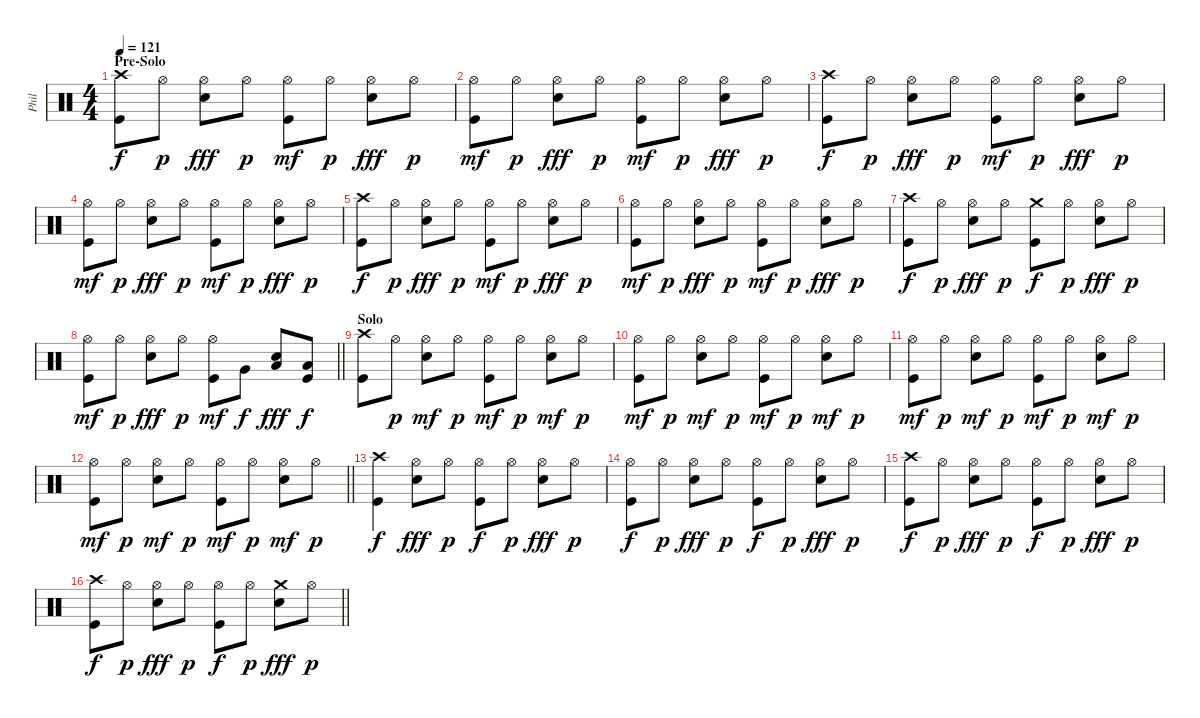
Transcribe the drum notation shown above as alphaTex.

\track ("Phil" "Phil") {instrument percussion}
\staff {score}
\articulation defaults
\ts (4 4)
\section ("" "Pre-Solo")
\tempo 121
\clef neutral
\ks c
("Crash high (hit)" "Kick (hit)").8{dy f} "Hi-Hat (open)".8{dy p} ("Hi-Hat (open)" "Snare (hit) 2").8{dy fff} "Hi-Hat (open)".8{dy p} ("Hi-Hat (open)" "Kick (hit)").8{dy mf} "Hi-Hat (open)".8{dy p} ("Hi-Hat (open)" "Snare (hit) 2").8{dy fff} "Hi-Hat (open)".8{dy p} |
("Hi-Hat (open)" "Kick (hit)").8{dy mf} "Hi-Hat (open)".8{dy p} ("Hi-Hat (open)" "Snare (hit) 2").8{dy fff} "Hi-Hat (open)".8{dy p} ("Hi-Hat (open)" "Kick (hit)").8{dy mf} "Hi-Hat (open)".8{dy p} ("Hi-Hat (open)" "Snare (hit) 2").8{dy fff} "Hi-Hat (open)".8{dy p} |
("Crash high (hit)" "Kick (hit)").8{dy f} "Hi-Hat (open)".8{dy p} ("Hi-Hat (open)" "Snare (hit) 2").8{dy fff} "Hi-Hat (open)".8{dy p} ("Hi-Hat (open)" "Kick (hit)").8{dy mf} "Hi-Hat (open)".8{dy p} ("Hi-Hat (open)" "Snare (hit) 2").8{dy fff} "Hi-Hat (open)".8{dy p} |
("Hi-Hat (open)" "Kick (hit)").8{dy mf} "Hi-Hat (open)".8{dy p} ("Hi-Hat (open)" "Snare (hit) 2").8{dy fff} "Hi-Hat (open)".8{dy p} ("Hi-Hat (open)" "Kick (hit)").8{dy mf} "Hi-Hat (open)".8{dy p} ("Hi-Hat (open)" "Snare (hit) 2").8{dy fff} "Hi-Hat (open)".8{dy p} |
("Crash high (hit)" "Kick (hit)").8{dy f} "Hi-Hat (open)".8{dy p} ("Hi-Hat (open)" "Snare (hit) 2").8{dy fff} "Hi-Hat (open)".8{dy p} ("Hi-Hat (open)" "Kick (hit)").8{dy mf} "Hi-Hat (open)".8{dy p} ("Hi-Hat (open)" "Snare (hit) 2").8{dy fff} "Hi-Hat (open)".8{dy p} |
("Hi-Hat (open)" "Kick (hit)").8{dy mf} "Hi-Hat (open)".8{dy p} ("Hi-Hat (open)" "Snare (hit) 2").8{dy fff} "Hi-Hat (open)".8{dy p} ("Hi-Hat (open)" "Kick (hit)").8{dy mf} "Hi-Hat (open)".8{dy p} ("Hi-Hat (open)" "Snare (hit) 2").8{dy fff} "Hi-Hat (open)".8{dy p} |
("Crash high (hit)" "Kick (hit)").8{dy f} "Hi-Hat (open)".8{dy p} ("Hi-Hat (open)" "Snare (hit) 2").8{dy fff} "Hi-Hat (open)".8{dy p} ("Crash medium (hit)" "Kick (hit)").8{dy f} "Hi-Hat (open)".8{dy p} ("Hi-Hat (open)" "Snare (hit) 2").8{dy fff} "Hi-Hat (open)".8{dy p} |
\barLineRight lightlight
("Hi-Hat (open)" "Kick (hit)").8{dy mf} "Hi-Hat (open)".8{dy p} ("Hi-Hat (open)" "Snare (hit) 2").8{dy fff} "Hi-Hat (open)".8{dy p} ("Hi-Hat (open)" "Kick (hit)").8{dy mf} "Very Low Tom (hit)".8{dy f} ("Low Tom (hit)" "Snare (hit) 2").8{dy fff} ("Low Floor Tom (hit)" "Kick (hit)").8{dy f} |
\section ("" "Solo")
("Crash high (hit)" "Kick (hit)").8 "Hi-Hat (open)".8{dy p} ("Hi-Hat (open)" "Snare (hit) 2").8{dy mf} "Hi-Hat (open)".8{dy p} ("Hi-Hat (open)" "Kick (hit)").8{dy mf} "Hi-Hat (open)".8{dy p} ("Hi-Hat (open)" "Snare (hit) 2").8{dy mf} "Hi-Hat (open)".8{dy p} |
("Hi-Hat (open)" "Kick (hit)").8{dy mf} "Hi-Hat (open)".8{dy p} ("Hi-Hat (open)" "Snare (hit) 2").8{dy mf} "Hi-Hat (open)".8{dy p} ("Hi-Hat (open)" "Kick (hit)").8{dy mf} "Hi-Hat (open)".8{dy p} ("Hi-Hat (open)" "Snare (hit) 2").8{dy mf} "Hi-Hat (open)".8{dy p} |
("Hi-Hat (open)" "Kick (hit)").8{dy mf} "Hi-Hat (open)".8{dy p} ("Hi-Hat (open)" "Snare (hit) 2").8{dy mf} "Hi-Hat (open)".8{dy p} ("Hi-Hat (open)" "Kick (hit)").8{dy mf} "Hi-Hat (open)".8{dy p} ("Hi-Hat (open)" "Snare (hit) 2").8{dy mf} "Hi-Hat (open)".8{dy p} |
\barLineRight lightlight
("Hi-Hat (open)" "Kick (hit)").8{dy mf} "Hi-Hat (open)".8{dy p} ("Hi-Hat (open)" "Snare (hit) 2").8{dy mf} "Hi-Hat (open)".8{dy p} ("Hi-Hat (open)" "Kick (hit)").8{dy mf} "Hi-Hat (open)".8{dy p} ("Hi-Hat (open)" "Snare (hit) 2").8{dy mf} "Hi-Hat (open)".8{dy p} |
("Crash high (hit)" "Kick (hit)").4{dy f} ("Hi-Hat (open)" "Snare (hit) 2").8{dy fff} "Hi-Hat (open)".8{dy p} ("Hi-Hat (open)" "Kick (hit)").8{dy f} "Hi-Hat (open)".8{dy p} ("Hi-Hat (open)" "Snare (hit) 2").8{dy fff} "Hi-Hat (open)".8{dy p} |
("Hi-Hat (open)" "Kick (hit)").8{dy f} "Hi-Hat (open)".8{dy p} ("Hi-Hat (open)" "Snare (hit) 2").8{dy fff} "Hi-Hat (open)".8{dy p} ("Hi-Hat (open)" "Kick (hit)").8{dy f} "Hi-Hat (open)".8{dy p} ("Hi-Hat (open)" "Snare (hit) 2").8{dy fff} "Hi-Hat (open)".8{dy p} |
("Crash high (hit)" "Kick (hit)").8{dy f} "Hi-Hat (open)".8{dy p} ("Hi-Hat (open)" "Snare (hit) 2").8{dy fff} "Hi-Hat (open)".8{dy p} ("Hi-Hat (open)" "Kick (hit)").8{dy f} "Hi-Hat (open)".8{dy p} ("Hi-Hat (open)" "Snare (hit) 2").8{dy fff} "Hi-Hat (open)".8{dy p} |
\barLineRight lightlight
("Crash high (hit)" "Kick (hit)").8{dy f} "Hi-Hat (open)".8{dy p} ("Hi-Hat (open)" "Snare (hit) 2").8{dy fff} "Hi-Hat (open)".8{dy p} ("Hi-Hat (open)" "Kick (hit)").8{dy f} "Hi-Hat (open)".8{dy p} ("Crash medium (hit)" "Snare (hit) 2").8{dy fff} "Hi-Hat (open)".8{dy p}
